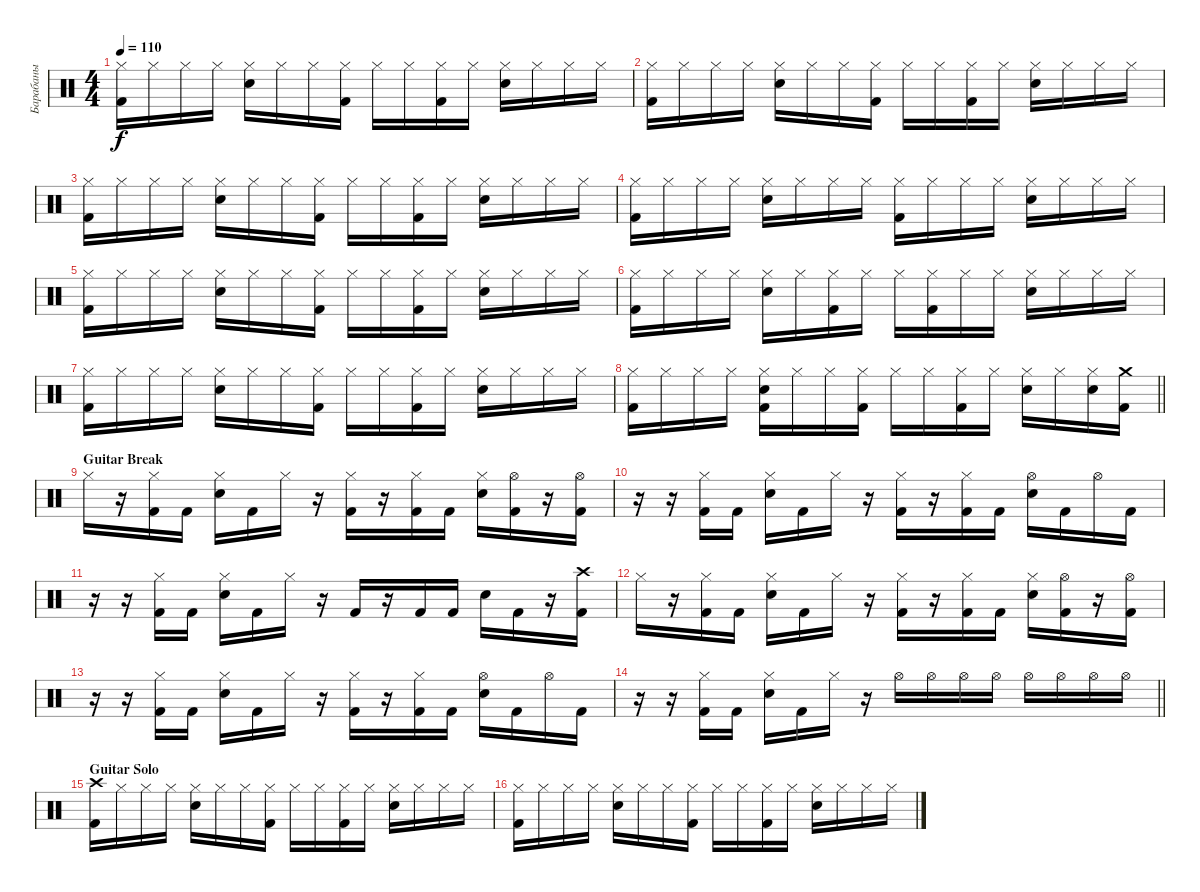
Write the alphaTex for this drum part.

\track ("Барабаны" "Барабаны") {instrument percussion}
\staff {score}
\articulation defaults
\ts (4 4)
\tempo 110
\clef neutral
\ks c
("Hi-Hat (closed)" "Kick (hit) 2").16{dy f} "Hi-Hat (closed)".16 "Hi-Hat (closed)".16 "Hi-Hat (closed)".16 ("Hi-Hat (closed)" "Snare (hit) 2").16 "Hi-Hat (closed)".16 "Hi-Hat (closed)".16 ("Hi-Hat (closed)" "Kick (hit) 2").16 "Hi-Hat (closed)".16 "Hi-Hat (closed)".16 ("Hi-Hat (closed)" "Kick (hit) 2").16 "Hi-Hat (closed)".16 ("Hi-Hat (closed)" "Snare (hit) 2").16 "Hi-Hat (closed)".16 "Hi-Hat (closed)".16 "Hi-Hat (closed)".16 |
("Hi-Hat (closed)" "Kick (hit) 2").16 "Hi-Hat (closed)".16 "Hi-Hat (closed)".16 "Hi-Hat (closed)".16 ("Hi-Hat (closed)" "Snare (hit) 2").16 "Hi-Hat (closed)".16 "Hi-Hat (closed)".16 ("Hi-Hat (closed)" "Kick (hit) 2").16 "Hi-Hat (closed)".16 "Hi-Hat (closed)".16 ("Hi-Hat (closed)" "Kick (hit) 2").16 "Hi-Hat (closed)".16 ("Hi-Hat (closed)" "Snare (hit) 2").16 "Hi-Hat (closed)".16 "Hi-Hat (closed)".16 "Hi-Hat (closed)".16 |
("Hi-Hat (closed)" "Kick (hit) 2").16 "Hi-Hat (closed)".16 "Hi-Hat (closed)".16 "Hi-Hat (closed)".16 ("Hi-Hat (closed)" "Snare (hit) 2").16 "Hi-Hat (closed)".16 "Hi-Hat (closed)".16 ("Hi-Hat (closed)" "Kick (hit) 2").16 "Hi-Hat (closed)".16 "Hi-Hat (closed)".16 ("Hi-Hat (closed)" "Kick (hit) 2").16 "Hi-Hat (closed)".16 ("Hi-Hat (closed)" "Snare (hit) 2").16 "Hi-Hat (closed)".16 "Hi-Hat (closed)".16 "Hi-Hat (closed)".16 |
("Hi-Hat (closed)" "Kick (hit) 2").16 "Hi-Hat (closed)".16 "Hi-Hat (closed)".16 "Hi-Hat (closed)".16 ("Hi-Hat (closed)" "Snare (hit) 2").16 "Hi-Hat (closed)".16 "Hi-Hat (closed)".16 "Hi-Hat (closed)".16 ("Hi-Hat (closed)" "Kick (hit) 2").16 "Hi-Hat (closed)".16 "Hi-Hat (closed)".16 "Hi-Hat (closed)".16 ("Hi-Hat (closed)" "Snare (hit) 2").16 "Hi-Hat (closed)".16 "Hi-Hat (closed)".16 "Hi-Hat (closed)".16 |
("Hi-Hat (closed)" "Kick (hit) 2").16 "Hi-Hat (closed)".16 "Hi-Hat (closed)".16 "Hi-Hat (closed)".16 ("Hi-Hat (closed)" "Snare (hit) 2").16 "Hi-Hat (closed)".16 "Hi-Hat (closed)".16 ("Hi-Hat (closed)" "Kick (hit) 2").16 "Hi-Hat (closed)".16 "Hi-Hat (closed)".16 ("Hi-Hat (closed)" "Kick (hit) 2").16 "Hi-Hat (closed)".16 ("Hi-Hat (closed)" "Snare (hit) 2").16 "Hi-Hat (closed)".16 "Hi-Hat (closed)".16 "Hi-Hat (closed)".16 |
("Hi-Hat (closed)" "Kick (hit) 2").16 "Hi-Hat (closed)".16 "Hi-Hat (closed)".16 "Hi-Hat (closed)".16 ("Hi-Hat (closed)" "Snare (hit) 2").16 "Hi-Hat (closed)".16 ("Hi-Hat (closed)" "Kick (hit) 2").16 "Hi-Hat (closed)".16 "Hi-Hat (closed)".16 ("Hi-Hat (closed)" "Kick (hit) 2").16 "Hi-Hat (closed)".16 "Hi-Hat (closed)".16 ("Hi-Hat (closed)" "Snare (hit) 2").16 "Hi-Hat (closed)".16 "Hi-Hat (closed)".16 "Hi-Hat (closed)".16 |
("Hi-Hat (closed)" "Kick (hit) 2").16 "Hi-Hat (closed)".16 "Hi-Hat (closed)".16 "Hi-Hat (closed)".16 ("Hi-Hat (closed)" "Snare (hit) 2").16 "Hi-Hat (closed)".16 "Hi-Hat (closed)".16 ("Hi-Hat (closed)" "Kick (hit) 2").16 "Hi-Hat (closed)".16 "Hi-Hat (closed)".16 ("Hi-Hat (closed)" "Kick (hit) 2").16 "Hi-Hat (closed)".16 ("Hi-Hat (closed)" "Snare (hit) 2").16 "Hi-Hat (closed)".16 "Hi-Hat (closed)".16 "Hi-Hat (closed)".16 |
\barLineRight lightlight
("Hi-Hat (closed)" "Kick (hit) 2").16 "Hi-Hat (closed)".16 "Hi-Hat (closed)".16 "Hi-Hat (closed)".16 ("Hi-Hat (closed)" "Snare (hit) 2" "Kick (hit) 2").16 "Hi-Hat (closed)".16 "Hi-Hat (closed)".16 ("Hi-Hat (closed)" "Kick (hit) 2").16 "Hi-Hat (closed)".16 "Hi-Hat (closed)".16 ("Hi-Hat (closed)" "Kick (hit) 2").16 "Hi-Hat (closed)".16 ("Hi-Hat (closed)" "Snare (hit) 2").16 "Hi-Hat (closed)".16 ("Hi-Hat (closed)" "Snare (hit) 2").16 ("Crash medium (hit)" "Kick (hit) 2").16 |
\section ("" "Guitar Break")
"Hi-Hat (closed)".16 r.16 ("Hi-Hat (closed)" "Kick (hit) 2").16 "Kick (hit) 2".16 ("Hi-Hat (closed)" "Snare (hit) 2").16 "Kick (hit) 2".16 "Hi-Hat (closed)".16 r.16 ("Hi-Hat (closed)" "Kick (hit) 2").16 r.16 ("Hi-Hat (closed)" "Kick (hit) 2").16 "Kick (hit) 2".16 ("Hi-Hat (closed)" "Snare (hit) 2").16 ("Hi-Hat (open)" "Kick (hit) 2").16 r.16 ("Hi-Hat (open)" "Kick (hit) 2").16 |
r.16 r.16 ("Hi-Hat (closed)" "Kick (hit) 2").16 "Kick (hit) 2".16 ("Hi-Hat (closed)" "Snare (hit) 2").16 "Kick (hit) 2".16 "Hi-Hat (closed)".16 r.16 ("Hi-Hat (closed)" "Kick (hit) 2").16 r.16 ("Hi-Hat (closed)" "Kick (hit) 2").16 "Kick (hit) 2".16 ("Hi-Hat (open)" "Snare (hit) 2").16 "Kick (hit) 2".16 "Hi-Hat (open)".16 "Kick (hit) 2".16 |
r.16 r.16 ("Hi-Hat (closed)" "Kick (hit) 2").16 "Kick (hit) 2".16 ("Hi-Hat (closed)" "Snare (hit) 2").16 "Kick (hit) 2".16 "Hi-Hat (closed)".16 r.16 "Kick (hit) 2".16 r.16 "Kick (hit) 2".16 "Kick (hit) 2".16 "Snare (hit) 2".16 "Kick (hit) 2".16 r.16 ("Crash high (hit)" "Kick (hit) 2").16 |
"Hi-Hat (closed)".16 r.16 ("Hi-Hat (closed)" "Kick (hit) 2").16 "Kick (hit) 2".16 ("Hi-Hat (closed)" "Snare (hit) 2").16 "Kick (hit) 2".16 "Hi-Hat (closed)".16 r.16 ("Hi-Hat (closed)" "Kick (hit) 2").16 r.16 ("Hi-Hat (closed)" "Kick (hit) 2").16 "Kick (hit) 2".16 ("Hi-Hat (closed)" "Snare (hit) 2").16 ("Hi-Hat (open)" "Kick (hit) 2").16 r.16 ("Hi-Hat (open)" "Kick (hit) 2").16 |
r.16 r.16 ("Hi-Hat (closed)" "Kick (hit) 2").16 "Kick (hit) 2".16 ("Hi-Hat (closed)" "Snare (hit) 2").16 "Kick (hit) 2".16 "Hi-Hat (closed)".16 r.16 ("Hi-Hat (closed)" "Kick (hit) 2").16 r.16 ("Hi-Hat (closed)" "Kick (hit) 2").16 "Kick (hit) 2".16 ("Hi-Hat (open)" "Snare (hit) 2").16 "Kick (hit) 2".16 "Hi-Hat (open)".16 "Kick (hit) 2".16 |
\barLineRight lightlight
r.16 r.16 ("Hi-Hat (closed)" "Kick (hit) 2").16 "Kick (hit) 2".16 ("Hi-Hat (closed)" "Snare (hit) 2").16 "Kick (hit) 2".16 "Hi-Hat (closed)".16 r.16 "Hi-Hat (open)".16 "Hi-Hat (open)".16 "Hi-Hat (open)".16 "Hi-Hat (open)".16 "Hi-Hat (open)".16 "Hi-Hat (open)".16 "Hi-Hat (open)".16 "Hi-Hat (open)".16 |
\section ("" "Guitar Solo")
("Crash high (hit)" "Kick (hit) 2").16 "Hi-Hat (closed)".16 "Hi-Hat (closed)".16 "Hi-Hat (closed)".16 ("Hi-Hat (closed)" "Snare (hit) 2").16 "Hi-Hat (closed)".16 "Hi-Hat (closed)".16 ("Hi-Hat (closed)" "Kick (hit) 2").16 "Hi-Hat (closed)".16 "Hi-Hat (closed)".16 ("Hi-Hat (closed)" "Kick (hit) 2").16 "Hi-Hat (closed)".16 ("Hi-Hat (closed)" "Snare (hit) 2").16 "Hi-Hat (closed)".16 "Hi-Hat (closed)".16 "Hi-Hat (closed)".16 |
("Hi-Hat (closed)" "Kick (hit) 2").16 "Hi-Hat (closed)".16 "Hi-Hat (closed)".16 "Hi-Hat (closed)".16 ("Hi-Hat (closed)" "Snare (hit) 2").16 "Hi-Hat (closed)".16 "Hi-Hat (closed)".16 ("Hi-Hat (closed)" "Kick (hit) 2").16 "Hi-Hat (closed)".16 "Hi-Hat (closed)".16 ("Hi-Hat (closed)" "Kick (hit) 2").16 "Hi-Hat (closed)".16 ("Hi-Hat (closed)" "Snare (hit) 2").16 "Hi-Hat (closed)".16 "Hi-Hat (closed)".16 "Hi-Hat (closed)".16
